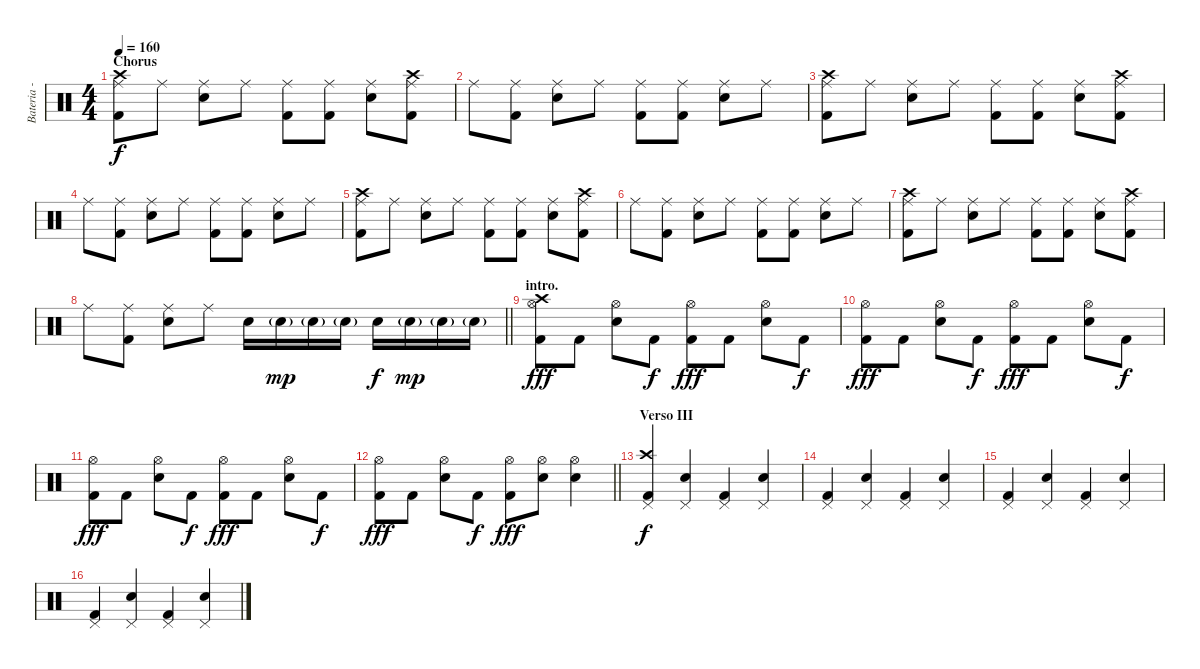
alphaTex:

\track ("Bateria - Larzon" "Bateria - ") {instrument percussion}
\staff {score}
\articulation defaults
\ts (4 4)
\section ("" "Chorus")
\tempo 160
\clef neutral
\ks c
("Kick (hit) 2" "Ride (middle)" "Crash high (hit)").8{dy f} "Ride (middle)".8 ("Electric Snare (hit)" "Ride (middle)").8 "Ride (middle)".8 ("Kick (hit) 2" "Ride (middle)").8 ("Kick (hit) 2" "Ride (middle)").8 ("Electric Snare (hit)" "Ride (middle)").8 ("Kick (hit) 2" "Ride (middle)" "Crash high (hit)").8 |
"Ride (middle)".8 ("Kick (hit) 2" "Ride (middle)").8 ("Electric Snare (hit)" "Ride (middle)").8 "Ride (middle)".8 ("Kick (hit) 2" "Ride (middle)").8 ("Kick (hit) 2" "Ride (middle)").8 ("Electric Snare (hit)" "Ride (middle)").8 "Ride (middle)".8 |
("Kick (hit) 2" "Ride (middle)" "Crash high (hit)").8 "Ride (middle)".8 ("Electric Snare (hit)" "Ride (middle)").8 "Ride (middle)".8 ("Kick (hit) 2" "Ride (middle)").8 ("Kick (hit) 2" "Ride (middle)").8 ("Electric Snare (hit)" "Ride (middle)").8 ("Kick (hit) 2" "Ride (middle)" "Crash high (hit)").8 |
"Ride (middle)".8 ("Kick (hit) 2" "Ride (middle)").8 ("Electric Snare (hit)" "Ride (middle)").8 "Ride (middle)".8 ("Kick (hit) 2" "Ride (middle)").8 ("Kick (hit) 2" "Ride (middle)").8 ("Electric Snare (hit)" "Ride (middle)").8 "Ride (middle)".8 |
("Kick (hit) 2" "Ride (middle)" "Crash high (hit)").8 "Ride (middle)".8 ("Electric Snare (hit)" "Ride (middle)").8 "Ride (middle)".8 ("Kick (hit) 2" "Ride (middle)").8 ("Kick (hit) 2" "Ride (middle)").8 ("Electric Snare (hit)" "Ride (middle)").8 ("Kick (hit) 2" "Ride (middle)" "Crash high (hit)").8 |
"Ride (middle)".8 ("Kick (hit) 2" "Ride (middle)").8 ("Electric Snare (hit)" "Ride (middle)").8 "Ride (middle)".8 ("Kick (hit) 2" "Ride (middle)").8 ("Kick (hit) 2" "Ride (middle)").8 ("Electric Snare (hit)" "Ride (middle)").8 "Ride (middle)".8 |
("Kick (hit) 2" "Ride (middle)" "Crash high (hit)").8 "Ride (middle)".8 ("Electric Snare (hit)" "Ride (middle)").8 "Ride (middle)".8 ("Kick (hit) 2" "Ride (middle)").8 ("Kick (hit) 2" "Ride (middle)").8 ("Electric Snare (hit)" "Ride (middle)").8 ("Kick (hit) 2" "Ride (middle)" "Crash high (hit)").8 |
\barLineRight lightlight "Ride (middle)".8
("Kick (hit) 2" "Ride (middle)").8 ("Electric Snare (hit)" "Ride (middle)").8 "Ride (middle)".8 "Electric Snare (hit)".16 "Electric Snare (hit)"{g}.16{dy mp} "Electric Snare (hit)"{g}.16 "Electric Snare (hit)"{g}.16 "Electric Snare (hit)".16{dy f} "Electric Snare (hit)"{g}.16{dy mp} "Electric Snare (hit)"{g}.16 "Electric Snare (hit)"{g}.16 |
\section ("" "intro.")
("Kick (hit) 2" "Hi-Hat (open)" "Crash high (hit)").8{dy fff} "Kick (hit) 2".8 ("Electric Snare (hit)" "Hi-Hat (open)").8 "Kick (hit) 2".8{dy f} ("Kick (hit) 2" "Hi-Hat (open)").8{dy fff} "Kick (hit) 2".8 ("Electric Snare (hit)" "Hi-Hat (open)").8 "Kick (hit) 2".8{dy f} |
("Kick (hit) 2" "Hi-Hat (open)").8{dy fff} "Kick (hit) 2".8 ("Electric Snare (hit)" "Hi-Hat (open)").8 "Kick (hit) 2".8{dy f} ("Kick (hit) 2" "Hi-Hat (open)").8{dy fff} "Kick (hit) 2".8 ("Electric Snare (hit)" "Hi-Hat (open)").8 "Kick (hit) 2".8{dy f} |
("Kick (hit) 2" "Hi-Hat (open)").8{dy fff} "Kick (hit) 2".8 ("Electric Snare (hit)" "Hi-Hat (open)").8 "Kick (hit) 2".8{dy f} ("Kick (hit) 2" "Hi-Hat (open)").8{dy fff} "Kick (hit) 2".8 ("Electric Snare (hit)" "Hi-Hat (open)").8 "Kick (hit) 2".8{dy f} |
\barLineRight lightlight
("Kick (hit) 2" "Hi-Hat (open)").8{dy fff} "Kick (hit) 2".8 ("Electric Snare (hit)" "Hi-Hat (open)").8 "Kick (hit) 2".8{dy f} ("Kick (hit) 2" "Hi-Hat (open)").8{dy fff} ("Electric Snare (hit)" "Hi-Hat (open)").8 ("Electric Snare (hit)" "Hi-Hat (open)").4 |
\section ("" "Verso III")
("Kick (hit) 2" "Pedal Hi-Hat (hit)" "Crash high (hit)").4{dy f} ("Electric Snare (hit)" "Pedal Hi-Hat (hit)").4 ("Kick (hit) 2" "Pedal Hi-Hat (hit)").4 ("Electric Snare (hit)" "Pedal Hi-Hat (hit)").4 |
("Kick (hit) 2" "Pedal Hi-Hat (hit)").4 ("Electric Snare (hit)" "Pedal Hi-Hat (hit)").4 ("Kick (hit) 2" "Pedal Hi-Hat (hit)").4 ("Electric Snare (hit)" "Pedal Hi-Hat (hit)").4 |
("Kick (hit) 2" "Pedal Hi-Hat (hit)").4 ("Electric Snare (hit)" "Pedal Hi-Hat (hit)").4 ("Kick (hit) 2" "Pedal Hi-Hat (hit)").4 ("Electric Snare (hit)" "Pedal Hi-Hat (hit)").4 |
("Kick (hit) 2" "Pedal Hi-Hat (hit)").4 ("Electric Snare (hit)" "Pedal Hi-Hat (hit)").4 ("Kick (hit) 2" "Pedal Hi-Hat (hit)").4 ("Electric Snare (hit)" "Pedal Hi-Hat (hit)").4
